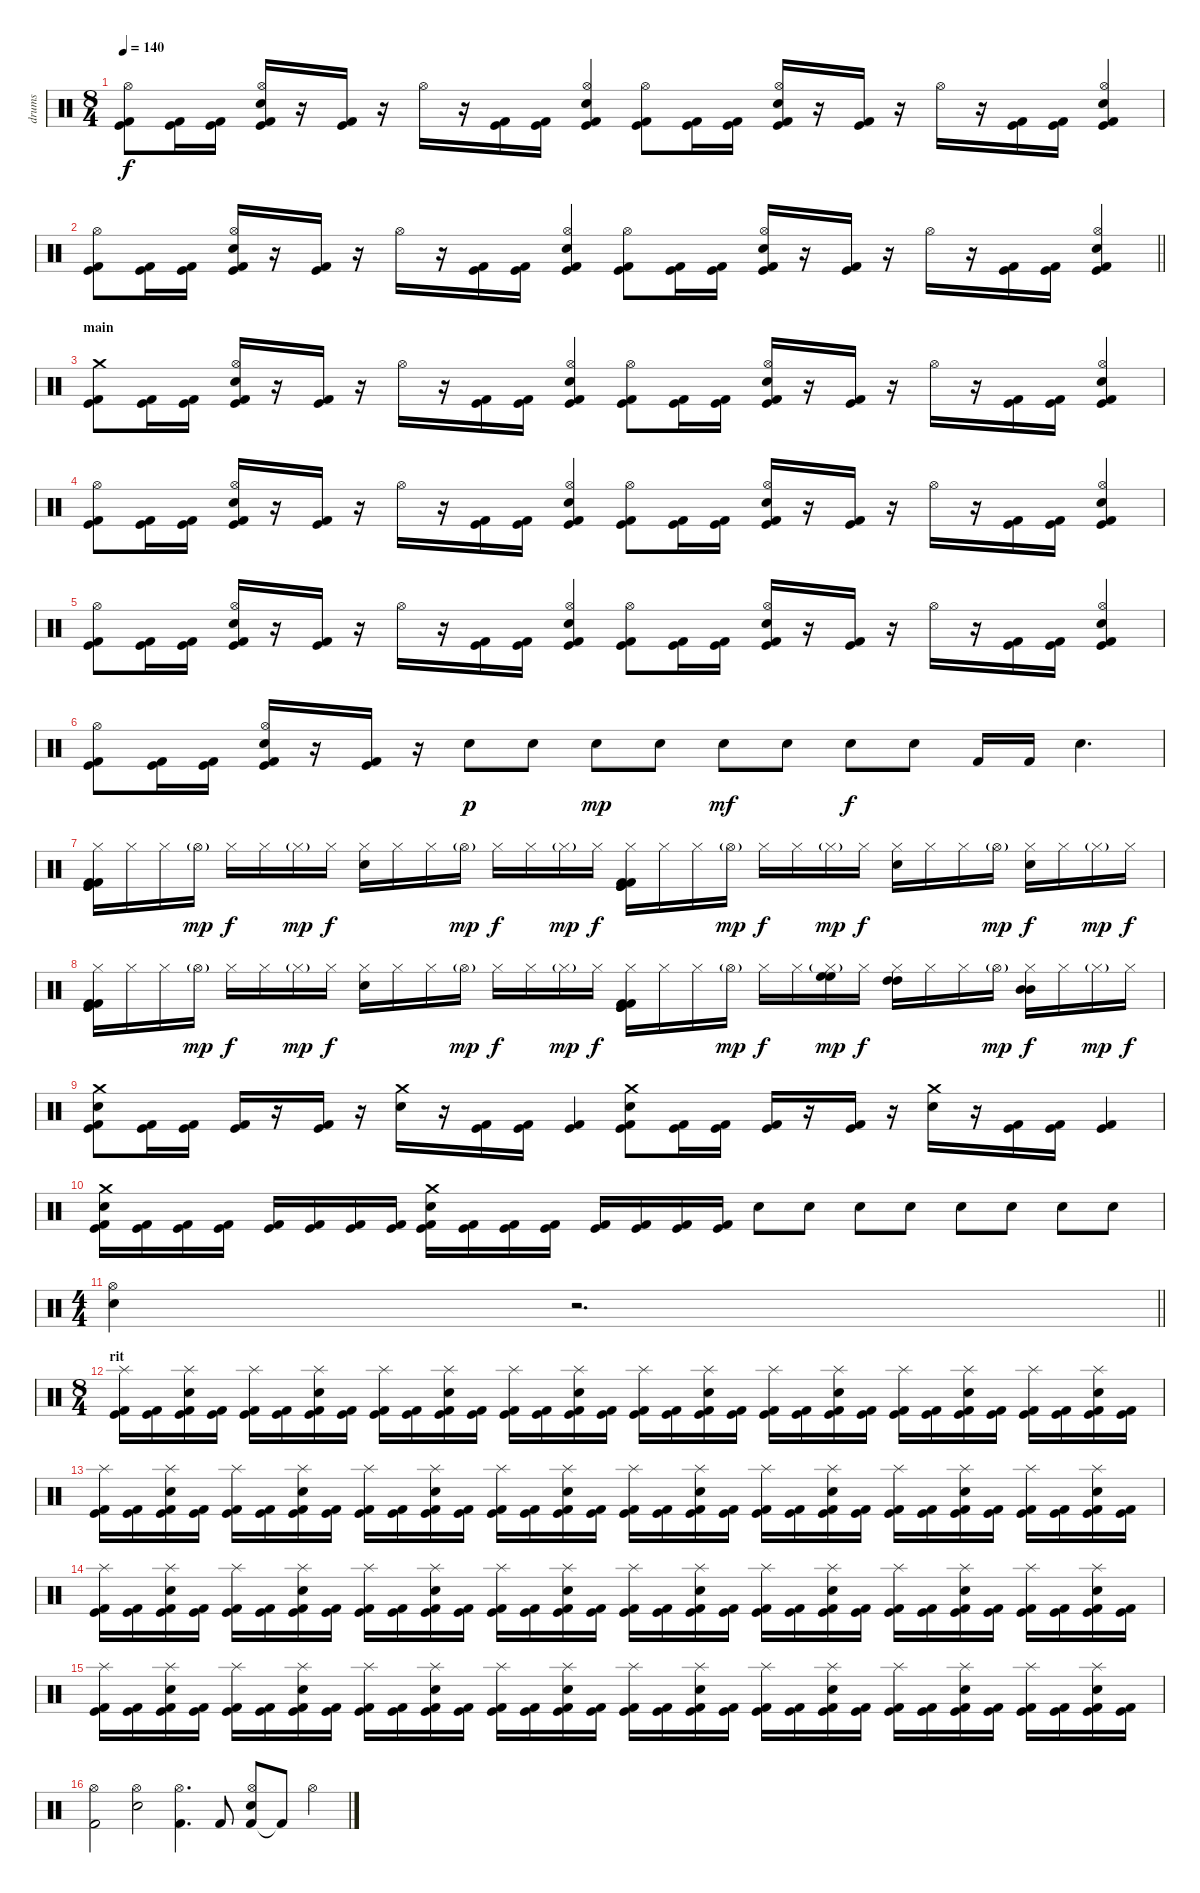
\track ("drums" "drums") {instrument percussion}
\staff {score}
\articulation defaults
\ts (8 4)
\tempo 140
\clef neutral
\ks c
("Kick (hit) 2" "Kick (hit)" "Hi-Hat (open)").8{dy f} ("Kick (hit) 2" "Kick (hit)").16 ("Kick (hit) 2" "Kick (hit)").16 ("Kick (hit) 2" "Kick (hit)" "Snare (hit) 2" "Hi-Hat (open)").16 r.16 ("Kick (hit) 2" "Kick (hit)").16 r.16 "Hi-Hat (open)".16 r.16 ("Kick (hit)" "Kick (hit) 2").16 ("Kick (hit) 2" "Kick (hit)").16 ("Kick (hit)" "Kick (hit) 2" "Snare (hit) 2" "Hi-Hat (open)").4 ("Kick (hit) 2" "Kick (hit)" "Hi-Hat (open)").8 ("Kick (hit) 2" "Kick (hit)").16 ("Kick (hit) 2" "Kick (hit)").16 ("Kick (hit) 2" "Kick (hit)" "Snare (hit) 2" "Hi-Hat (open)").16 r.16 ("Kick (hit) 2" "Kick (hit)").16 r.16 "Hi-Hat (open)".16 r.16 ("Kick (hit)" "Kick (hit) 2").16 ("Kick (hit) 2" "Kick (hit)").16 ("Kick (hit)" "Kick (hit) 2" "Snare (hit) 2" "Hi-Hat (open)").4 |
\barLineRight lightlight
("Kick (hit) 2" "Kick (hit)" "Hi-Hat (open)").8 ("Kick (hit) 2" "Kick (hit)").16 ("Kick (hit) 2" "Kick (hit)").16 ("Kick (hit) 2" "Kick (hit)" "Snare (hit) 2" "Hi-Hat (open)").16 r.16 ("Kick (hit) 2" "Kick (hit)").16 r.16 "Hi-Hat (open)".16 r.16 ("Kick (hit)" "Kick (hit) 2").16 ("Kick (hit) 2" "Kick (hit)").16 ("Kick (hit)" "Kick (hit) 2" "Snare (hit) 2" "Hi-Hat (open)").4 ("Kick (hit) 2" "Kick (hit)" "Hi-Hat (open)").8 ("Kick (hit) 2" "Kick (hit)").16 ("Kick (hit) 2" "Kick (hit)").16 ("Kick (hit) 2" "Kick (hit)" "Snare (hit) 2" "Hi-Hat (open)").16 r.16 ("Kick (hit) 2" "Kick (hit)").16 r.16 "Hi-Hat (open)".16 r.16 ("Kick (hit)" "Kick (hit) 2").16 ("Kick (hit) 2" "Kick (hit)").16 ("Kick (hit)" "Kick (hit) 2" "Snare (hit) 2" "Hi-Hat (open)").4 |
\section ("" "main")
("Kick (hit) 2" "Kick (hit)" "Crash medium (hit)").8 ("Kick (hit) 2" "Kick (hit)").16 ("Kick (hit) 2" "Kick (hit)").16 ("Kick (hit) 2" "Kick (hit)" "Snare (hit) 2" "Hi-Hat (open)").16 r.16 ("Kick (hit) 2" "Kick (hit)").16 r.16 "Hi-Hat (open)".16 r.16 ("Kick (hit)" "Kick (hit) 2").16 ("Kick (hit) 2" "Kick (hit)").16 ("Kick (hit)" "Kick (hit) 2" "Snare (hit) 2" "Hi-Hat (open)").4 ("Kick (hit) 2" "Kick (hit)" "Hi-Hat (open)").8 ("Kick (hit) 2" "Kick (hit)").16 ("Kick (hit) 2" "Kick (hit)").16 ("Kick (hit) 2" "Kick (hit)" "Snare (hit) 2" "Hi-Hat (open)").16 r.16 ("Kick (hit) 2" "Kick (hit)").16 r.16 "Hi-Hat (open)".16 r.16 ("Kick (hit)" "Kick (hit) 2").16 ("Kick (hit) 2" "Kick (hit)").16 ("Kick (hit)" "Kick (hit) 2" "Snare (hit) 2" "Hi-Hat (open)").4 |
("Kick (hit) 2" "Kick (hit)" "Hi-Hat (open)").8 ("Kick (hit) 2" "Kick (hit)").16 ("Kick (hit) 2" "Kick (hit)").16 ("Kick (hit) 2" "Kick (hit)" "Snare (hit) 2" "Hi-Hat (open)").16 r.16 ("Kick (hit) 2" "Kick (hit)").16 r.16 "Hi-Hat (open)".16 r.16 ("Kick (hit)" "Kick (hit) 2").16 ("Kick (hit) 2" "Kick (hit)").16 ("Kick (hit)" "Kick (hit) 2" "Snare (hit) 2" "Hi-Hat (open)").4 ("Kick (hit) 2" "Kick (hit)" "Hi-Hat (open)").8 ("Kick (hit) 2" "Kick (hit)").16 ("Kick (hit) 2" "Kick (hit)").16 ("Kick (hit) 2" "Kick (hit)" "Snare (hit) 2" "Hi-Hat (open)").16 r.16 ("Kick (hit) 2" "Kick (hit)").16 r.16 "Hi-Hat (open)".16 r.16 ("Kick (hit)" "Kick (hit) 2").16 ("Kick (hit) 2" "Kick (hit)").16 ("Kick (hit)" "Kick (hit) 2" "Snare (hit) 2" "Hi-Hat (open)").4 |
("Kick (hit) 2" "Kick (hit)" "Hi-Hat (open)").8 ("Kick (hit) 2" "Kick (hit)").16 ("Kick (hit) 2" "Kick (hit)").16 ("Kick (hit) 2" "Kick (hit)" "Snare (hit) 2" "Hi-Hat (open)").16 r.16 ("Kick (hit) 2" "Kick (hit)").16 r.16 "Hi-Hat (open)".16 r.16 ("Kick (hit)" "Kick (hit) 2").16 ("Kick (hit) 2" "Kick (hit)").16 ("Kick (hit)" "Kick (hit) 2" "Snare (hit) 2" "Hi-Hat (open)").4 ("Kick (hit) 2" "Kick (hit)" "Hi-Hat (open)").8 ("Kick (hit) 2" "Kick (hit)").16 ("Kick (hit) 2" "Kick (hit)").16 ("Kick (hit) 2" "Kick (hit)" "Snare (hit) 2" "Hi-Hat (open)").16 r.16 ("Kick (hit) 2" "Kick (hit)").16 r.16 "Hi-Hat (open)".16 r.16 ("Kick (hit)" "Kick (hit) 2").16 ("Kick (hit) 2" "Kick (hit)").16 ("Kick (hit)" "Kick (hit) 2" "Snare (hit) 2" "Hi-Hat (open)").4 |
("Kick (hit) 2" "Kick (hit)" "Hi-Hat (open)").8 ("Kick (hit) 2" "Kick (hit)").16 ("Kick (hit) 2" "Kick (hit)").16 ("Kick (hit) 2" "Kick (hit)" "Snare (hit) 2" "Hi-Hat (open)").16 r.16 ("Kick (hit) 2" "Kick (hit)").16 r.16 "Snare (hit) 2".8{dy p} "Snare (hit) 2".8 "Snare (hit) 2".8{dy mp} "Snare (hit) 2".8 "Snare (hit) 2".8{dy mf} "Snare (hit) 2".8 "Snare (hit) 2".8{dy f} "Snare (hit) 2".8 "Kick (hit) 2".16 "Kick (hit) 2".16 "Snare (hit) 2".4{d} |
("Kick (hit) 2" "Kick (hit)" "Kick (hit) 2" "Kick (hit)" "Hi-Hat (closed)").16 "Hi-Hat (closed)".16 "Hi-Hat (closed)".16 "Hi-Hat (open)"{g}.16{dy mp} "Hi-Hat (closed)".16{dy f} "Hi-Hat (closed)".16 "Hi-Hat (closed)"{g}.16{dy mp} "Hi-Hat (closed)".16{dy f} ("Snare (hit) 2" "Hi-Hat (closed)").16 "Hi-Hat (closed)".16 "Hi-Hat (closed)".16 "Hi-Hat (open)"{g}.16{dy mp} "Hi-Hat (closed)".16{dy f} "Hi-Hat (closed)".16 "Hi-Hat (closed)"{g}.16{dy mp} "Hi-Hat (closed)".16{dy f} ("Kick (hit) 2" "Kick (hit)" "Kick (hit) 2" "Kick (hit)" "Hi-Hat (closed)").16 "Hi-Hat (closed)".16 "Hi-Hat (closed)".16 "Hi-Hat (open)"{g}.16{dy mp} "Hi-Hat (closed)".16{dy f} "Hi-Hat (closed)".16 "Hi-Hat (closed)"{g}.16{dy mp} "Hi-Hat (closed)".16{dy f} ("Snare (hit) 2" "Hi-Hat (closed)").16 "Hi-Hat (closed)".16 "Hi-Hat (closed)".16 "Hi-Hat (open)"{g}.16{dy mp} ("Snare (hit) 2" "Hi-Hat (closed)").16{dy f} "Hi-Hat (closed)".16 "Hi-Hat (closed)"{g}.16{dy mp} "Hi-Hat (closed)".16{dy f} |
("Kick (hit) 2" "Kick (hit)" "Kick (hit) 2" "Kick (hit)" "Hi-Hat (closed)").16 "Hi-Hat (closed)".16 "Hi-Hat (closed)".16 "Hi-Hat (open)"{g}.16{dy mp} "Hi-Hat (closed)".16{dy f} "Hi-Hat (closed)".16 "Hi-Hat (closed)"{g}.16{dy mp} "Hi-Hat (closed)".16{dy f} ("Snare (hit) 2" "Hi-Hat (closed)").16 "Hi-Hat (closed)".16 "Hi-Hat (closed)".16 "Hi-Hat (open)"{g}.16{dy mp} "Hi-Hat (closed)".16{dy f} "Hi-Hat (closed)".16 "Hi-Hat (closed)"{g}.16{dy mp} "Hi-Hat (closed)".16{dy f} ("Kick (hit) 2" "Kick (hit)" "Kick (hit) 2" "Kick (hit)" "Hi-Hat (closed)").16 "Hi-Hat (closed)".16 "Hi-Hat (closed)".16 "Hi-Hat (open)"{g}.16{dy mp} "Hi-Hat (closed)".16{dy f} "Hi-Hat (closed)".16 ("High Floor Tom (hit)" "High Floor Tom (hit)" "Hi-Hat (closed)"{g}).16{dy mp} "Hi-Hat (closed)".16{dy f} ("High Tom (hit)" "High Tom (hit)" "Hi-Hat (closed)").16 "Hi-Hat (closed)".16 "Hi-Hat (closed)".16 "Hi-Hat (open)"{g}.16{dy mp} ("Mid Tom (hit)" "Mid Tom (hit)" "Hi-Hat (closed)").16{dy f} "Hi-Hat (closed)".16 "Hi-Hat (closed)"{g}.16{dy mp} "Hi-Hat (closed)".16{dy f} |
("Kick (hit) 2" "Kick (hit)" "Snare (hit) 2" "Crash medium (hit)").8 ("Kick (hit) 2" "Kick (hit)").16 ("Kick (hit) 2" "Kick (hit)").16 ("Kick (hit) 2" "Kick (hit)").16 r.16 ("Kick (hit) 2" "Kick (hit)").16 r.16 ("Snare (hit) 2" "Crash medium (hit)").16 r.16 ("Kick (hit)" "Kick (hit) 2").16 ("Kick (hit) 2" "Kick (hit)").16 ("Kick (hit)" "Kick (hit) 2").4 ("Kick (hit) 2" "Kick (hit)" "Snare (hit) 2" "Crash medium (hit)").8 ("Kick (hit) 2" "Kick (hit)").16 ("Kick (hit) 2" "Kick (hit)").16 ("Kick (hit) 2" "Kick (hit)").16 r.16 ("Kick (hit) 2" "Kick (hit)").16 r.16 ("Snare (hit) 2" "Crash medium (hit)").16 r.16 ("Kick (hit)" "Kick (hit) 2").16 ("Kick (hit) 2" "Kick (hit)").16 ("Kick (hit)" "Kick (hit) 2").4 |
("Kick (hit)" "Kick (hit) 2" "Snare (hit) 2" "Crash medium (hit)").16 ("Kick (hit)" "Kick (hit) 2").16 ("Kick (hit)" "Kick (hit) 2").16 ("Kick (hit)" "Kick (hit) 2").16 ("Kick (hit)" "Kick (hit) 2").16 ("Kick (hit)" "Kick (hit) 2").16 ("Kick (hit)" "Kick (hit) 2").16 ("Kick (hit)" "Kick (hit) 2").16 ("Kick (hit) 2" "Kick (hit)" "Snare (hit) 2" "Crash medium (hit)").16 ("Kick (hit) 2" "Kick (hit)").16 ("Kick (hit) 2" "Kick (hit)").16 ("Kick (hit) 2" "Kick (hit)").16 ("Kick (hit) 2" "Kick (hit)").16 ("Kick (hit) 2" "Kick (hit)").16 ("Kick (hit) 2" "Kick (hit)").16 ("Kick (hit) 2" "Kick (hit)").16 "Snare (hit) 2".8 "Snare (hit) 2".8 "Snare (hit) 2".8 "Snare (hit) 2".8 "Snare (hit) 2".8 "Snare (hit) 2".8 "Snare (hit) 2".8 "Snare (hit) 2".8 |
\ts (4 4)
\barLineRight lightlight
("Snare (hit) 2" "Hi-Hat (open)").4 r.2{d} |
\ts (8 4)
\section ("" "rit")
("Kick (hit) 2" "Kick (hit)" "Splash (hit)").16 ("Kick (hit) 2" "Kick (hit)").16 ("Kick (hit) 2" "Kick (hit)" "Snare (hit) 2" "Splash (hit)").16 ("Kick (hit) 2" "Kick (hit)").16 ("Kick (hit) 2" "Kick (hit)" "Splash (hit)").16 ("Kick (hit) 2" "Kick (hit)").16 ("Kick (hit) 2" "Kick (hit)" "Snare (hit) 2" "Splash (hit)").16 ("Kick (hit) 2" "Kick (hit)").16 ("Kick (hit) 2" "Kick (hit)" "Splash (hit)").16 ("Kick (hit) 2" "Kick (hit)").16 ("Kick (hit) 2" "Kick (hit)" "Snare (hit) 2" "Splash (hit)").16 ("Kick (hit) 2" "Kick (hit)").16 ("Kick (hit) 2" "Kick (hit)" "Splash (hit)").16 ("Kick (hit) 2" "Kick (hit)").16 ("Kick (hit) 2" "Kick (hit)" "Snare (hit) 2" "Splash (hit)").16 ("Kick (hit) 2" "Kick (hit)").16 ("Kick (hit) 2" "Kick (hit)" "Splash (hit)").16 ("Kick (hit) 2" "Kick (hit)").16 ("Kick (hit) 2" "Kick (hit)" "Snare (hit) 2" "Splash (hit)").16 ("Kick (hit) 2" "Kick (hit)").16 ("Kick (hit) 2" "Kick (hit)" "Splash (hit)").16 ("Kick (hit) 2" "Kick (hit)").16 ("Kick (hit) 2" "Kick (hit)" "Snare (hit) 2" "Splash (hit)").16 ("Kick (hit) 2" "Kick (hit)").16 ("Kick (hit) 2" "Kick (hit)" "Splash (hit)").16 ("Kick (hit) 2" "Kick (hit)").16 ("Kick (hit) 2" "Kick (hit)" "Snare (hit) 2" "Splash (hit)").16 ("Kick (hit) 2" "Kick (hit)").16 ("Kick (hit) 2" "Kick (hit)" "Splash (hit)").16 ("Kick (hit) 2" "Kick (hit)").16 ("Kick (hit) 2" "Kick (hit)" "Snare (hit) 2" "Splash (hit)").16 ("Kick (hit) 2" "Kick (hit)").16 |
("Kick (hit) 2" "Kick (hit)" "Splash (hit)").16 ("Kick (hit) 2" "Kick (hit)").16 ("Kick (hit) 2" "Kick (hit)" "Snare (hit) 2" "Splash (hit)").16 ("Kick (hit) 2" "Kick (hit)").16 ("Kick (hit) 2" "Kick (hit)" "Splash (hit)").16 ("Kick (hit) 2" "Kick (hit)").16 ("Kick (hit) 2" "Kick (hit)" "Snare (hit) 2" "Splash (hit)").16 ("Kick (hit) 2" "Kick (hit)").16 ("Kick (hit) 2" "Kick (hit)" "Splash (hit)").16 ("Kick (hit) 2" "Kick (hit)").16 ("Kick (hit) 2" "Kick (hit)" "Snare (hit) 2" "Splash (hit)").16 ("Kick (hit) 2" "Kick (hit)").16 ("Kick (hit) 2" "Kick (hit)" "Splash (hit)").16 ("Kick (hit) 2" "Kick (hit)").16 ("Kick (hit) 2" "Kick (hit)" "Snare (hit) 2" "Splash (hit)").16 ("Kick (hit) 2" "Kick (hit)").16 ("Kick (hit) 2" "Kick (hit)" "Splash (hit)").16 ("Kick (hit) 2" "Kick (hit)").16 ("Kick (hit) 2" "Kick (hit)" "Snare (hit) 2" "Splash (hit)").16 ("Kick (hit) 2" "Kick (hit)").16 ("Kick (hit) 2" "Kick (hit)" "Splash (hit)").16 ("Kick (hit) 2" "Kick (hit)").16 ("Kick (hit) 2" "Kick (hit)" "Snare (hit) 2" "Splash (hit)").16 ("Kick (hit) 2" "Kick (hit)").16 ("Kick (hit) 2" "Kick (hit)" "Splash (hit)").16 ("Kick (hit) 2" "Kick (hit)").16 ("Kick (hit) 2" "Kick (hit)" "Snare (hit) 2" "Splash (hit)").16 ("Kick (hit) 2" "Kick (hit)").16 ("Kick (hit) 2" "Kick (hit)" "Splash (hit)").16 ("Kick (hit) 2" "Kick (hit)").16 ("Kick (hit) 2" "Kick (hit)" "Snare (hit) 2" "Splash (hit)").16 ("Kick (hit) 2" "Kick (hit)").16 |
("Kick (hit) 2" "Kick (hit)" "Splash (hit)").16 ("Kick (hit) 2" "Kick (hit)").16 ("Kick (hit) 2" "Kick (hit)" "Snare (hit) 2" "Splash (hit)").16 ("Kick (hit) 2" "Kick (hit)").16 ("Kick (hit) 2" "Kick (hit)" "Splash (hit)").16 ("Kick (hit) 2" "Kick (hit)").16 ("Kick (hit) 2" "Kick (hit)" "Snare (hit) 2" "Splash (hit)").16 ("Kick (hit) 2" "Kick (hit)").16 ("Kick (hit) 2" "Kick (hit)" "Splash (hit)").16 ("Kick (hit) 2" "Kick (hit)").16 ("Kick (hit) 2" "Kick (hit)" "Snare (hit) 2" "Splash (hit)").16 ("Kick (hit) 2" "Kick (hit)").16 ("Kick (hit) 2" "Kick (hit)" "Splash (hit)").16 ("Kick (hit) 2" "Kick (hit)").16 ("Kick (hit) 2" "Kick (hit)" "Snare (hit) 2" "Splash (hit)").16 ("Kick (hit) 2" "Kick (hit)").16 ("Kick (hit) 2" "Kick (hit)" "Splash (hit)").16 ("Kick (hit) 2" "Kick (hit)").16 ("Kick (hit) 2" "Kick (hit)" "Snare (hit) 2" "Splash (hit)").16 ("Kick (hit) 2" "Kick (hit)").16 ("Kick (hit) 2" "Kick (hit)" "Splash (hit)").16 ("Kick (hit) 2" "Kick (hit)").16 ("Kick (hit) 2" "Kick (hit)" "Snare (hit) 2" "Splash (hit)").16 ("Kick (hit) 2" "Kick (hit)").16 ("Kick (hit) 2" "Kick (hit)" "Splash (hit)").16 ("Kick (hit) 2" "Kick (hit)").16 ("Kick (hit) 2" "Kick (hit)" "Snare (hit) 2" "Splash (hit)").16 ("Kick (hit) 2" "Kick (hit)").16 ("Kick (hit) 2" "Kick (hit)" "Splash (hit)").16 ("Kick (hit) 2" "Kick (hit)").16 ("Kick (hit) 2" "Kick (hit)" "Snare (hit) 2" "Splash (hit)").16 ("Kick (hit) 2" "Kick (hit)").16 |
("Kick (hit) 2" "Kick (hit)" "Splash (hit)").16 ("Kick (hit) 2" "Kick (hit)").16 ("Kick (hit) 2" "Kick (hit)" "Snare (hit) 2" "Splash (hit)").16 ("Kick (hit) 2" "Kick (hit)").16 ("Kick (hit) 2" "Kick (hit)" "Splash (hit)").16 ("Kick (hit) 2" "Kick (hit)").16 ("Kick (hit) 2" "Kick (hit)" "Snare (hit) 2" "Splash (hit)").16 ("Kick (hit) 2" "Kick (hit)").16 ("Kick (hit) 2" "Kick (hit)" "Splash (hit)").16 ("Kick (hit) 2" "Kick (hit)").16 ("Kick (hit) 2" "Kick (hit)" "Snare (hit) 2" "Splash (hit)").16 ("Kick (hit) 2" "Kick (hit)").16 ("Kick (hit) 2" "Kick (hit)" "Splash (hit)").16 ("Kick (hit) 2" "Kick (hit)").16 ("Kick (hit) 2" "Kick (hit)" "Snare (hit) 2" "Splash (hit)").16 ("Kick (hit) 2" "Kick (hit)").16 ("Kick (hit) 2" "Kick (hit)" "Splash (hit)").16 ("Kick (hit) 2" "Kick (hit)").16 ("Kick (hit) 2" "Kick (hit)" "Snare (hit) 2" "Splash (hit)").16 ("Kick (hit) 2" "Kick (hit)").16 ("Kick (hit) 2" "Kick (hit)" "Splash (hit)").16 ("Kick (hit) 2" "Kick (hit)").16 ("Kick (hit) 2" "Kick (hit)" "Snare (hit) 2" "Splash (hit)").16 ("Kick (hit) 2" "Kick (hit)").16 ("Kick (hit) 2" "Kick (hit)" "Splash (hit)").16 ("Kick (hit) 2" "Kick (hit)").16 ("Kick (hit) 2" "Kick (hit)" "Snare (hit) 2" "Splash (hit)").16 ("Kick (hit) 2" "Kick (hit)").16 ("Kick (hit) 2" "Kick (hit)" "Splash (hit)").16 ("Kick (hit) 2" "Kick (hit)").16 ("Kick (hit) 2" "Kick (hit)" "Snare (hit) 2" "Splash (hit)").16 ("Kick (hit) 2" "Kick (hit)").16 |
("Kick (hit) 2" "Hi-Hat (open)").2 ("Electric Snare (hit)" "Hi-Hat (open)").2 ("Kick (hit) 2" "Hi-Hat (open)").4{d} "Kick (hit) 2".8 ("Kick (hit) 2" "Electric Snare (hit)" "Hi-Hat (open)").8 "Kick (hit) 2"{t}.8 "Hi-Hat (open)".4
